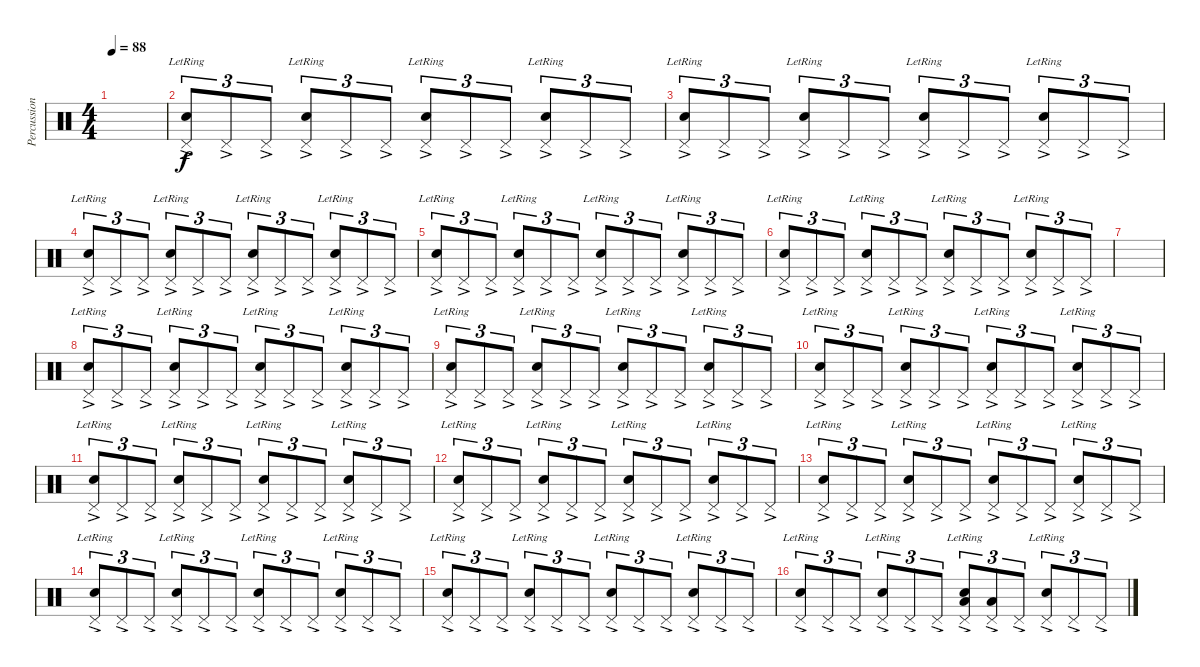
\track ("Percussions" "Percussion") {instrument percussion}
\staff {score}
\articulation defaults
\ts (4 4)
\tempo 88
\clef neutral
\ks c
|
("Pedal Hi-Hat (hit)"{ac} "Snare (hit) 2"{ac lr}).8{tu (3 2)} "Pedal Hi-Hat (hit)"{ac}.8{tu (3 2)} "Pedal Hi-Hat (hit)"{ac}.8{tu (3 2)} ("Pedal Hi-Hat (hit)" "Snare (hit) 2"{ac lr}).8{tu (3 2)} "Pedal Hi-Hat (hit)"{ac}.8{tu (3 2)} "Pedal Hi-Hat (hit)"{ac}.8{tu (3 2)} ("Pedal Hi-Hat (hit)" "Snare (hit) 2"{ac lr}).8{tu (3 2)} "Pedal Hi-Hat (hit)"{ac}.8{tu (3 2)} "Pedal Hi-Hat (hit)"{ac}.8{tu (3 2)} ("Pedal Hi-Hat (hit)" "Snare (hit) 2"{ac lr}).8{tu (3 2)} "Pedal Hi-Hat (hit)"{ac}.8{tu (3 2)} "Pedal Hi-Hat (hit)"{ac}.8{tu (3 2)} |
("Pedal Hi-Hat (hit)"{ac} "Snare (hit) 2"{ac lr}).8{tu (3 2)} "Pedal Hi-Hat (hit)"{ac}.8{tu (3 2)} "Pedal Hi-Hat (hit)"{ac}.8{tu (3 2)} ("Pedal Hi-Hat (hit)" "Snare (hit) 2"{ac lr}).8{tu (3 2)} "Pedal Hi-Hat (hit)"{ac}.8{tu (3 2)} "Pedal Hi-Hat (hit)"{ac}.8{tu (3 2)} ("Pedal Hi-Hat (hit)" "Snare (hit) 2"{ac lr}).8{tu (3 2)} "Pedal Hi-Hat (hit)"{ac}.8{tu (3 2)} "Pedal Hi-Hat (hit)"{ac}.8{tu (3 2)} ("Pedal Hi-Hat (hit)" "Snare (hit) 2"{ac lr}).8{tu (3 2)} "Pedal Hi-Hat (hit)"{ac}.8{tu (3 2)} "Pedal Hi-Hat (hit)"{ac}.8{tu (3 2)} |
("Pedal Hi-Hat (hit)"{ac} "Snare (hit) 2"{ac lr}).8{tu (3 2)} "Pedal Hi-Hat (hit)"{ac}.8{tu (3 2)} "Pedal Hi-Hat (hit)"{ac}.8{tu (3 2)} ("Pedal Hi-Hat (hit)" "Snare (hit) 2"{ac lr}).8{tu (3 2)} "Pedal Hi-Hat (hit)"{ac}.8{tu (3 2)} "Pedal Hi-Hat (hit)"{ac}.8{tu (3 2)} ("Pedal Hi-Hat (hit)" "Snare (hit) 2"{ac lr}).8{tu (3 2)} "Pedal Hi-Hat (hit)"{ac}.8{tu (3 2)} "Pedal Hi-Hat (hit)"{ac}.8{tu (3 2)} ("Pedal Hi-Hat (hit)" "Snare (hit) 2"{ac lr}).8{tu (3 2)} "Pedal Hi-Hat (hit)"{ac}.8{tu (3 2)} "Pedal Hi-Hat (hit)"{ac}.8{tu (3 2)} |
("Pedal Hi-Hat (hit)"{ac} "Snare (hit) 2"{ac lr}).8{tu (3 2)} "Pedal Hi-Hat (hit)"{ac}.8{tu (3 2)} "Pedal Hi-Hat (hit)"{ac}.8{tu (3 2)} ("Pedal Hi-Hat (hit)" "Snare (hit) 2"{ac lr}).8{tu (3 2)} "Pedal Hi-Hat (hit)"{ac}.8{tu (3 2)} "Pedal Hi-Hat (hit)"{ac}.8{tu (3 2)} ("Pedal Hi-Hat (hit)" "Snare (hit) 2"{ac lr}).8{tu (3 2)} "Pedal Hi-Hat (hit)"{ac}.8{tu (3 2)} "Pedal Hi-Hat (hit)"{ac}.8{tu (3 2)} ("Pedal Hi-Hat (hit)" "Snare (hit) 2"{ac lr}).8{tu (3 2)} "Pedal Hi-Hat (hit)"{ac}.8{tu (3 2)} "Pedal Hi-Hat (hit)"{ac}.8{tu (3 2)} |
("Pedal Hi-Hat (hit)"{ac} "Snare (hit) 2"{ac lr}).8{tu (3 2)} "Pedal Hi-Hat (hit)"{ac}.8{tu (3 2)} "Pedal Hi-Hat (hit)"{ac}.8{tu (3 2)} ("Pedal Hi-Hat (hit)" "Snare (hit) 2"{ac lr}).8{tu (3 2)} "Pedal Hi-Hat (hit)"{ac}.8{tu (3 2)} "Pedal Hi-Hat (hit)"{ac}.8{tu (3 2)} ("Pedal Hi-Hat (hit)" "Snare (hit) 2"{ac lr}).8{tu (3 2)} "Pedal Hi-Hat (hit)"{ac}.8{tu (3 2)} "Pedal Hi-Hat (hit)"{ac}.8{tu (3 2)} ("Pedal Hi-Hat (hit)" "Snare (hit) 2"{ac lr}).8{tu (3 2)} "Pedal Hi-Hat (hit)"{ac}.8{tu (3 2)} "Pedal Hi-Hat (hit)"{ac}.8{tu (3 2)} |
|
("Pedal Hi-Hat (hit)"{ac} "Snare (hit) 2"{ac lr}).8{tu (3 2)} "Pedal Hi-Hat (hit)"{ac}.8{tu (3 2)} "Pedal Hi-Hat (hit)"{ac}.8{tu (3 2)} ("Pedal Hi-Hat (hit)" "Snare (hit) 2"{ac lr}).8{tu (3 2)} "Pedal Hi-Hat (hit)"{ac}.8{tu (3 2)} "Pedal Hi-Hat (hit)"{ac}.8{tu (3 2)} ("Pedal Hi-Hat (hit)" "Snare (hit) 2"{ac lr}).8{tu (3 2)} "Pedal Hi-Hat (hit)"{ac}.8{tu (3 2)} "Pedal Hi-Hat (hit)"{ac}.8{tu (3 2)} ("Pedal Hi-Hat (hit)" "Snare (hit) 2"{ac lr}).8{tu (3 2)} "Pedal Hi-Hat (hit)"{ac}.8{tu (3 2)} "Pedal Hi-Hat (hit)"{ac}.8{tu (3 2)} |
("Pedal Hi-Hat (hit)"{ac} "Snare (hit) 2"{ac lr}).8{tu (3 2)} "Pedal Hi-Hat (hit)"{ac}.8{tu (3 2)} "Pedal Hi-Hat (hit)"{ac}.8{tu (3 2)} ("Pedal Hi-Hat (hit)" "Snare (hit) 2"{ac lr}).8{tu (3 2)} "Pedal Hi-Hat (hit)"{ac}.8{tu (3 2)} "Pedal Hi-Hat (hit)"{ac}.8{tu (3 2)} ("Pedal Hi-Hat (hit)" "Snare (hit) 2"{ac lr}).8{tu (3 2)} "Pedal Hi-Hat (hit)"{ac}.8{tu (3 2)} "Pedal Hi-Hat (hit)"{ac}.8{tu (3 2)} ("Pedal Hi-Hat (hit)" "Snare (hit) 2"{ac lr}).8{tu (3 2)} "Pedal Hi-Hat (hit)"{ac}.8{tu (3 2)} "Pedal Hi-Hat (hit)"{ac}.8{tu (3 2)} |
("Pedal Hi-Hat (hit)"{ac} "Snare (hit) 2"{ac lr}).8{tu (3 2)} "Pedal Hi-Hat (hit)"{ac}.8{tu (3 2)} "Pedal Hi-Hat (hit)"{ac}.8{tu (3 2)} ("Pedal Hi-Hat (hit)" "Snare (hit) 2"{ac lr}).8{tu (3 2)} "Pedal Hi-Hat (hit)"{ac}.8{tu (3 2)} "Pedal Hi-Hat (hit)"{ac}.8{tu (3 2)} ("Pedal Hi-Hat (hit)" "Snare (hit) 2"{ac lr}).8{tu (3 2)} "Pedal Hi-Hat (hit)"{ac}.8{tu (3 2)} "Pedal Hi-Hat (hit)"{ac}.8{tu (3 2)} ("Pedal Hi-Hat (hit)" "Snare (hit) 2"{ac lr}).8{tu (3 2)} "Pedal Hi-Hat (hit)"{ac}.8{tu (3 2)} "Pedal Hi-Hat (hit)"{ac}.8{tu (3 2)} |
("Pedal Hi-Hat (hit)"{ac} "Snare (hit) 2"{ac lr}).8{tu (3 2)} "Pedal Hi-Hat (hit)"{ac}.8{tu (3 2)} "Pedal Hi-Hat (hit)"{ac}.8{tu (3 2)} ("Pedal Hi-Hat (hit)" "Snare (hit) 2"{ac lr}).8{tu (3 2)} "Pedal Hi-Hat (hit)"{ac}.8{tu (3 2)} "Pedal Hi-Hat (hit)"{ac}.8{tu (3 2)} ("Pedal Hi-Hat (hit)" "Snare (hit) 2"{ac lr}).8{tu (3 2)} "Pedal Hi-Hat (hit)"{ac}.8{tu (3 2)} "Pedal Hi-Hat (hit)"{ac}.8{tu (3 2)} ("Pedal Hi-Hat (hit)" "Snare (hit) 2"{ac lr}).8{tu (3 2)} "Pedal Hi-Hat (hit)"{ac}.8{tu (3 2)} "Pedal Hi-Hat (hit)"{ac}.8{tu (3 2)} |
("Pedal Hi-Hat (hit)"{ac} "Snare (hit) 2"{ac lr}).8{tu (3 2)} "Pedal Hi-Hat (hit)"{ac}.8{tu (3 2)} "Pedal Hi-Hat (hit)"{ac}.8{tu (3 2)} ("Pedal Hi-Hat (hit)" "Snare (hit) 2"{ac lr}).8{tu (3 2)} "Pedal Hi-Hat (hit)"{ac}.8{tu (3 2)} "Pedal Hi-Hat (hit)"{ac}.8{tu (3 2)} ("Pedal Hi-Hat (hit)" "Snare (hit) 2"{ac lr}).8{tu (3 2)} "Pedal Hi-Hat (hit)"{ac}.8{tu (3 2)} "Pedal Hi-Hat (hit)"{ac}.8{tu (3 2)} ("Pedal Hi-Hat (hit)" "Snare (hit) 2"{ac lr}).8{tu (3 2)} "Pedal Hi-Hat (hit)"{ac}.8{tu (3 2)} "Pedal Hi-Hat (hit)"{ac}.8{tu (3 2)} |
("Pedal Hi-Hat (hit)"{ac} "Snare (hit) 2"{ac lr}).8{tu (3 2)} "Pedal Hi-Hat (hit)"{ac}.8{tu (3 2)} "Pedal Hi-Hat (hit)"{ac}.8{tu (3 2)} ("Pedal Hi-Hat (hit)" "Snare (hit) 2"{ac lr}).8{tu (3 2)} "Pedal Hi-Hat (hit)"{ac}.8{tu (3 2)} "Pedal Hi-Hat (hit)"{ac}.8{tu (3 2)} ("Pedal Hi-Hat (hit)" "Snare (hit) 2"{ac lr}).8{tu (3 2)} "Pedal Hi-Hat (hit)"{ac}.8{tu (3 2)} "Pedal Hi-Hat (hit)"{ac}.8{tu (3 2)} ("Pedal Hi-Hat (hit)" "Snare (hit) 2"{ac lr}).8{tu (3 2)} "Pedal Hi-Hat (hit)"{ac}.8{tu (3 2)} "Pedal Hi-Hat (hit)"{ac}.8{tu (3 2)} |
("Pedal Hi-Hat (hit)"{ac} "Snare (hit) 2"{ac lr}).8{tu (3 2)} "Pedal Hi-Hat (hit)"{ac}.8{tu (3 2)} "Pedal Hi-Hat (hit)"{ac}.8{tu (3 2)} ("Pedal Hi-Hat (hit)" "Snare (hit) 2"{ac lr}).8{tu (3 2)} "Pedal Hi-Hat (hit)"{ac}.8{tu (3 2)} "Pedal Hi-Hat (hit)"{ac}.8{tu (3 2)} ("Pedal Hi-Hat (hit)" "Snare (hit) 2"{ac lr}).8{tu (3 2)} "Pedal Hi-Hat (hit)"{ac}.8{tu (3 2)} "Pedal Hi-Hat (hit)"{ac}.8{tu (3 2)} ("Pedal Hi-Hat (hit)" "Snare (hit) 2"{ac lr}).8{tu (3 2)} "Pedal Hi-Hat (hit)"{ac}.8{tu (3 2)} "Pedal Hi-Hat (hit)"{ac}.8{tu (3 2)} |
("Pedal Hi-Hat (hit)"{ac} "Snare (hit) 2"{ac lr}).8{tu (3 2)} "Pedal Hi-Hat (hit)"{ac}.8{tu (3 2)} "Pedal Hi-Hat (hit)"{ac}.8{tu (3 2)} ("Pedal Hi-Hat (hit)" "Snare (hit) 2"{ac lr}).8{tu (3 2)} "Pedal Hi-Hat (hit)"{ac}.8{tu (3 2)} "Pedal Hi-Hat (hit)"{ac}.8{tu (3 2)} ("Pedal Hi-Hat (hit)" "Snare (hit) 2"{ac lr}).8{tu (3 2)} "Pedal Hi-Hat (hit)"{ac}.8{tu (3 2)} "Pedal Hi-Hat (hit)"{ac}.8{tu (3 2)} ("Pedal Hi-Hat (hit)" "Snare (hit) 2"{ac lr}).8{tu (3 2)} "Pedal Hi-Hat (hit)"{ac}.8{tu (3 2)} "Pedal Hi-Hat (hit)"{ac}.8{tu (3 2)} |
("Pedal Hi-Hat (hit)" "Snare (hit) 2"{ac lr}).8{tu (3 2)} "Pedal Hi-Hat (hit)"{ac}.8{tu (3 2)} "Pedal Hi-Hat (hit)"{ac}.8{tu (3 2)} ("Pedal Hi-Hat (hit)" "Snare (hit) 2"{ac lr}).8{tu (3 2)} "Pedal Hi-Hat (hit)"{ac}.8{tu (3 2)} "Pedal Hi-Hat (hit)"{ac}.8{tu (3 2)} ("Low Floor Tom (hit)"{ac} "Pedal Hi-Hat (hit)" "Snare (hit) 2"{ac lr}).8{tu (3 2)} ("Low Floor Tom (hit)"{ac} "Pedal Hi-Hat (hit)"{ac}).8{tu (3 2)} "Pedal Hi-Hat (hit)"{ac}.8{tu (3 2)} ("Pedal Hi-Hat (hit)" "Snare (hit) 2"{ac lr}).8{tu (3 2)} "Pedal Hi-Hat (hit)"{ac}.8{tu (3 2)} "Pedal Hi-Hat (hit)"{ac}.8{tu (3 2)}
